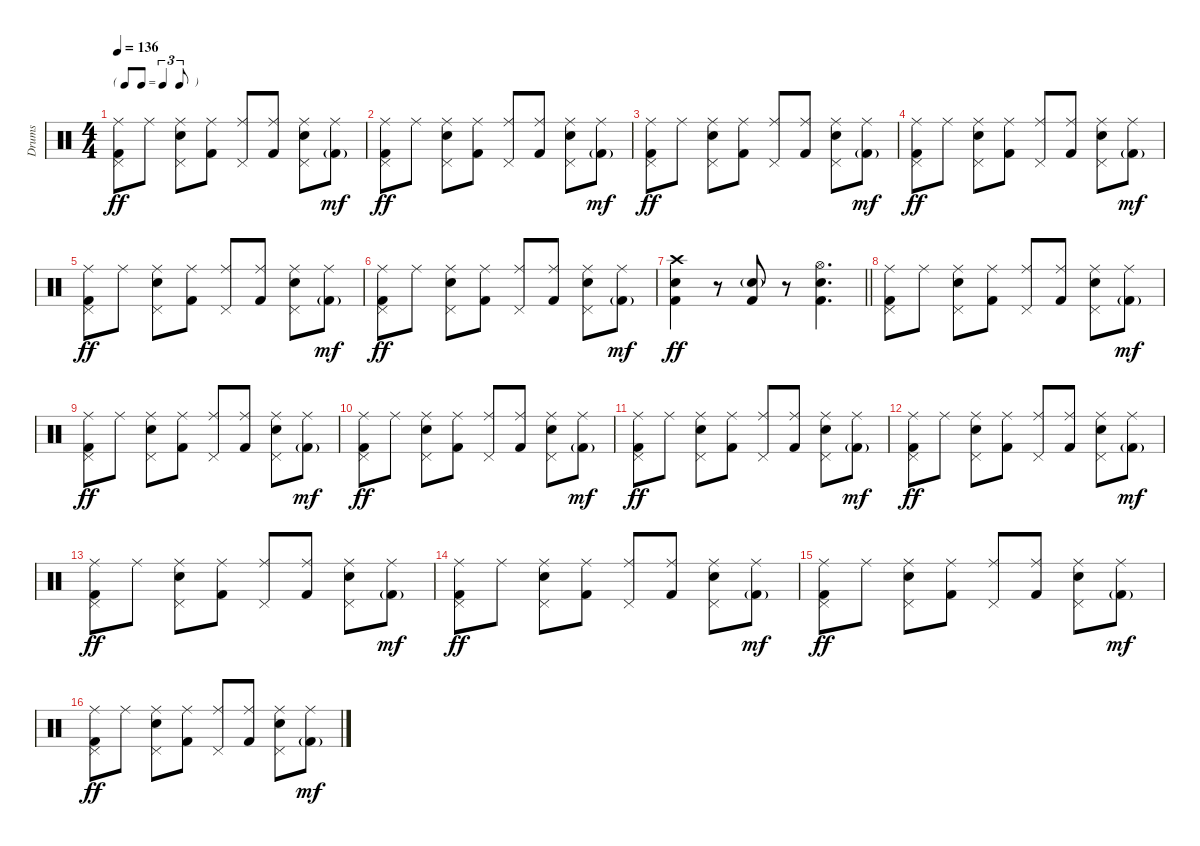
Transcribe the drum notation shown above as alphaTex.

\track ("Drums" "Drums") {instrument percussion}
\staff {score}
\articulation defaults
\ts (4 4)
\tf triplet8th
\tempo 136
\clef neutral
\ks c
("Ride (middle)" "Pedal Hi-Hat (hit)" "Kick (hit) 2").8{dy ff} "Ride (middle)".8 ("Ride (middle)" "Pedal Hi-Hat (hit)" "Snare (hit) 2").8 ("Ride (middle)" "Kick (hit) 2").8 ("Ride (middle)" "Pedal Hi-Hat (hit)").8 ("Ride (middle)" "Kick (hit) 2").8 ("Ride (middle)" "Pedal Hi-Hat (hit)" "Snare (hit) 2").8 ("Ride (middle)" "Kick (hit) 2"{g}).8{dy mf} |
("Ride (middle)" "Pedal Hi-Hat (hit)" "Kick (hit) 2").8{dy ff} "Ride (middle)".8 ("Ride (middle)" "Pedal Hi-Hat (hit)" "Snare (hit) 2").8 ("Ride (middle)" "Kick (hit) 2").8 ("Ride (middle)" "Pedal Hi-Hat (hit)").8 ("Ride (middle)" "Kick (hit) 2").8 ("Ride (middle)" "Pedal Hi-Hat (hit)" "Snare (hit) 2").8 ("Ride (middle)" "Kick (hit) 2"{g}).8{dy mf} |
("Ride (middle)" "Pedal Hi-Hat (hit)" "Kick (hit) 2").8{dy ff} "Ride (middle)".8 ("Ride (middle)" "Pedal Hi-Hat (hit)" "Snare (hit) 2").8 ("Ride (middle)" "Kick (hit) 2").8 ("Ride (middle)" "Pedal Hi-Hat (hit)").8 ("Ride (middle)" "Kick (hit) 2").8 ("Ride (middle)" "Pedal Hi-Hat (hit)" "Snare (hit) 2").8 ("Ride (middle)" "Kick (hit) 2"{g}).8{dy mf} |
("Ride (middle)" "Pedal Hi-Hat (hit)" "Kick (hit) 2").8{dy ff} "Ride (middle)".8 ("Ride (middle)" "Pedal Hi-Hat (hit)" "Snare (hit) 2").8 ("Ride (middle)" "Kick (hit) 2").8 ("Ride (middle)" "Pedal Hi-Hat (hit)").8 ("Ride (middle)" "Kick (hit) 2").8 ("Ride (middle)" "Pedal Hi-Hat (hit)" "Snare (hit) 2").8 ("Ride (middle)" "Kick (hit) 2"{g}).8{dy mf} |
("Ride (middle)" "Pedal Hi-Hat (hit)" "Kick (hit) 2").8{dy ff} "Ride (middle)".8 ("Ride (middle)" "Pedal Hi-Hat (hit)" "Snare (hit) 2").8 ("Ride (middle)" "Kick (hit) 2").8 ("Ride (middle)" "Pedal Hi-Hat (hit)").8 ("Ride (middle)" "Kick (hit) 2").8 ("Ride (middle)" "Pedal Hi-Hat (hit)" "Snare (hit) 2").8 ("Ride (middle)" "Kick (hit) 2"{g}).8{dy mf} |
("Ride (middle)" "Pedal Hi-Hat (hit)" "Kick (hit) 2").8{dy ff} "Ride (middle)".8 ("Ride (middle)" "Pedal Hi-Hat (hit)" "Snare (hit) 2").8 ("Ride (middle)" "Kick (hit) 2").8 ("Ride (middle)" "Pedal Hi-Hat (hit)").8 ("Ride (middle)" "Kick (hit) 2").8 ("Ride (middle)" "Pedal Hi-Hat (hit)" "Snare (hit) 2").8 ("Ride (middle)" "Kick (hit) 2"{g}).8{dy mf} |
\barLineRight lightlight
("Crash high (hit)" "Snare (hit) 2" "Kick (hit) 2").4{dy ff} r.8 ("Snare (hit) 2"{g} "Kick (hit) 2").8 r.8 ("Hi-Hat (open)" "Snare (hit) 2" "Kick (hit) 2").4{d} |
("Ride (middle)" "Pedal Hi-Hat (hit)" "Kick (hit) 2").8 "Ride (middle)".8 ("Ride (middle)" "Pedal Hi-Hat (hit)" "Snare (hit) 2").8 ("Ride (middle)" "Kick (hit) 2").8 ("Ride (middle)" "Pedal Hi-Hat (hit)").8 ("Ride (middle)" "Kick (hit) 2").8 ("Ride (middle)" "Pedal Hi-Hat (hit)" "Snare (hit) 2").8 ("Ride (middle)" "Kick (hit) 2"{g}).8{dy mf} |
("Ride (middle)" "Pedal Hi-Hat (hit)" "Kick (hit) 2").8{dy ff} "Ride (middle)".8 ("Ride (middle)" "Pedal Hi-Hat (hit)" "Snare (hit) 2").8 ("Ride (middle)" "Kick (hit) 2").8 ("Ride (middle)" "Pedal Hi-Hat (hit)").8 ("Ride (middle)" "Kick (hit) 2").8 ("Ride (middle)" "Pedal Hi-Hat (hit)" "Snare (hit) 2").8 ("Ride (middle)" "Kick (hit) 2"{g}).8{dy mf} |
("Ride (middle)" "Pedal Hi-Hat (hit)" "Kick (hit) 2").8{dy ff} "Ride (middle)".8 ("Ride (middle)" "Pedal Hi-Hat (hit)" "Snare (hit) 2").8 ("Ride (middle)" "Kick (hit) 2").8 ("Ride (middle)" "Pedal Hi-Hat (hit)").8 ("Ride (middle)" "Kick (hit) 2").8 ("Ride (middle)" "Pedal Hi-Hat (hit)" "Snare (hit) 2").8 ("Ride (middle)" "Kick (hit) 2"{g}).8{dy mf} |
("Ride (middle)" "Pedal Hi-Hat (hit)" "Kick (hit) 2").8{dy ff} "Ride (middle)".8 ("Ride (middle)" "Pedal Hi-Hat (hit)" "Snare (hit) 2").8 ("Ride (middle)" "Kick (hit) 2").8 ("Ride (middle)" "Pedal Hi-Hat (hit)").8 ("Ride (middle)" "Kick (hit) 2").8 ("Ride (middle)" "Pedal Hi-Hat (hit)" "Snare (hit) 2").8 ("Ride (middle)" "Kick (hit) 2"{g}).8{dy mf} |
("Ride (middle)" "Pedal Hi-Hat (hit)" "Kick (hit) 2").8{dy ff} "Ride (middle)".8 ("Ride (middle)" "Pedal Hi-Hat (hit)" "Snare (hit) 2").8 ("Ride (middle)" "Kick (hit) 2").8 ("Ride (middle)" "Pedal Hi-Hat (hit)").8 ("Ride (middle)" "Kick (hit) 2").8 ("Ride (middle)" "Pedal Hi-Hat (hit)" "Snare (hit) 2").8 ("Ride (middle)" "Kick (hit) 2"{g}).8{dy mf} |
("Ride (middle)" "Pedal Hi-Hat (hit)" "Kick (hit) 2").8{dy ff} "Ride (middle)".8 ("Ride (middle)" "Pedal Hi-Hat (hit)" "Snare (hit) 2").8 ("Ride (middle)" "Kick (hit) 2").8 ("Ride (middle)" "Pedal Hi-Hat (hit)").8 ("Ride (middle)" "Kick (hit) 2").8 ("Ride (middle)" "Pedal Hi-Hat (hit)" "Snare (hit) 2").8 ("Ride (middle)" "Kick (hit) 2"{g}).8{dy mf} |
("Ride (middle)" "Pedal Hi-Hat (hit)" "Kick (hit) 2").8{dy ff} "Ride (middle)".8 ("Ride (middle)" "Pedal Hi-Hat (hit)" "Snare (hit) 2").8 ("Ride (middle)" "Kick (hit) 2").8 ("Ride (middle)" "Pedal Hi-Hat (hit)").8 ("Ride (middle)" "Kick (hit) 2").8 ("Ride (middle)" "Pedal Hi-Hat (hit)" "Snare (hit) 2").8 ("Ride (middle)" "Kick (hit) 2"{g}).8{dy mf} |
("Ride (middle)" "Pedal Hi-Hat (hit)" "Kick (hit) 2").8{dy ff} "Ride (middle)".8 ("Ride (middle)" "Pedal Hi-Hat (hit)" "Snare (hit) 2").8 ("Ride (middle)" "Kick (hit) 2").8 ("Ride (middle)" "Pedal Hi-Hat (hit)").8 ("Ride (middle)" "Kick (hit) 2").8 ("Ride (middle)" "Pedal Hi-Hat (hit)" "Snare (hit) 2").8 ("Ride (middle)" "Kick (hit) 2"{g}).8{dy mf} |
("Ride (middle)" "Pedal Hi-Hat (hit)" "Kick (hit) 2").8{dy ff} "Ride (middle)".8 ("Ride (middle)" "Pedal Hi-Hat (hit)" "Snare (hit) 2").8 ("Ride (middle)" "Kick (hit) 2").8 ("Ride (middle)" "Pedal Hi-Hat (hit)").8 ("Ride (middle)" "Kick (hit) 2").8 ("Ride (middle)" "Pedal Hi-Hat (hit)" "Snare (hit) 2").8 ("Ride (middle)" "Kick (hit) 2"{g}).8{dy mf}
